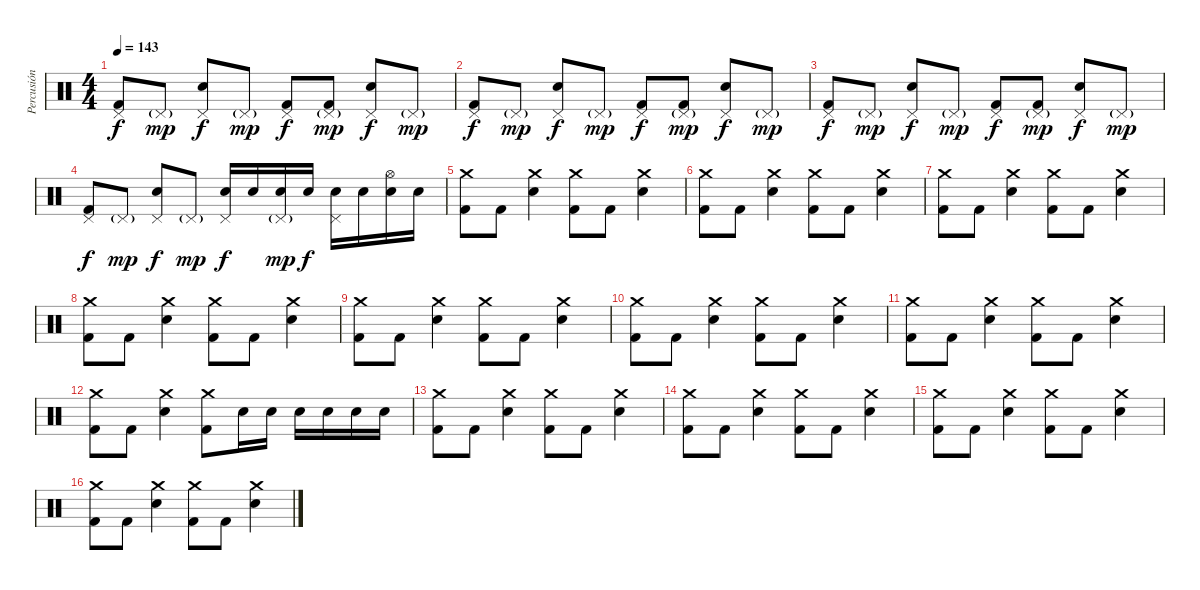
\track ("Percusión" "Percusión") {instrument percussion}
\staff {score}
\articulation defaults
\ts (4 4)
\tempo 143
\clef neutral
\ks c
("Pedal Hi-Hat (hit)" "Kick (hit) 2").8{dy f} "Pedal Hi-Hat (hit)"{g}.8{dy mp} ("Pedal Hi-Hat (hit)" "Snare (hit) 2").8{dy f} "Pedal Hi-Hat (hit)"{g}.8{dy mp} ("Pedal Hi-Hat (hit)" "Kick (hit) 2").8{dy f} ("Pedal Hi-Hat (hit)"{g} "Kick (hit) 2").8{dy mp} ("Pedal Hi-Hat (hit)" "Snare (hit) 2").8{dy f} "Pedal Hi-Hat (hit)"{g}.8{dy mp} |
("Pedal Hi-Hat (hit)" "Kick (hit) 2").8{dy f} "Pedal Hi-Hat (hit)"{g}.8{dy mp} ("Pedal Hi-Hat (hit)" "Snare (hit) 2").8{dy f} "Pedal Hi-Hat (hit)"{g}.8{dy mp} ("Pedal Hi-Hat (hit)" "Kick (hit) 2").8{dy f} ("Pedal Hi-Hat (hit)"{g} "Kick (hit) 2").8{dy mp} ("Pedal Hi-Hat (hit)" "Snare (hit) 2").8{dy f} "Pedal Hi-Hat (hit)"{g}.8{dy mp} |
("Pedal Hi-Hat (hit)" "Kick (hit) 2").8{dy f} "Pedal Hi-Hat (hit)"{g}.8{dy mp} ("Pedal Hi-Hat (hit)" "Snare (hit) 2").8{dy f} "Pedal Hi-Hat (hit)"{g}.8{dy mp} ("Pedal Hi-Hat (hit)" "Kick (hit) 2").8{dy f} ("Pedal Hi-Hat (hit)"{g} "Kick (hit) 2").8{dy mp} ("Pedal Hi-Hat (hit)" "Snare (hit) 2").8{dy f} "Pedal Hi-Hat (hit)"{g}.8{dy mp} |
("Pedal Hi-Hat (hit)" "Kick (hit) 2").8{dy f} "Pedal Hi-Hat (hit)"{g}.8{dy mp} ("Pedal Hi-Hat (hit)" "Snare (hit) 2").8{dy f} "Pedal Hi-Hat (hit)"{g}.8{dy mp} ("Pedal Hi-Hat (hit)" "Snare (hit) 2").16{dy f} "Snare (hit) 2".16 ("Pedal Hi-Hat (hit)"{g} "Snare (hit) 2").16{dy mp} "Snare (hit) 2".16{dy f} ("Pedal Hi-Hat (hit)" "Snare (hit) 2").16 "Snare (hit) 2".16 ("Hi-Hat (open)" "Snare (hit) 2").16 "Snare (hit) 2".16 |
("Crash medium (hit)" "Kick (hit) 2").8 "Kick (hit) 2".8 ("Crash medium (hit)" "Snare (hit) 2").4 ("Crash medium (hit)" "Kick (hit) 2").8 "Kick (hit) 2".8 ("Crash medium (hit)" "Snare (hit) 2").4 |
("Crash medium (hit)" "Kick (hit) 2").8 "Kick (hit) 2".8 ("Crash medium (hit)" "Snare (hit) 2").4 ("Crash medium (hit)" "Kick (hit) 2").8 "Kick (hit) 2".8 ("Crash medium (hit)" "Snare (hit) 2").4 |
("Crash medium (hit)" "Kick (hit) 2").8 "Kick (hit) 2".8 ("Crash medium (hit)" "Snare (hit) 2").4 ("Crash medium (hit)" "Kick (hit) 2").8 "Kick (hit) 2".8 ("Crash medium (hit)" "Snare (hit) 2").4 |
("Crash medium (hit)" "Kick (hit) 2").8 "Kick (hit) 2".8 ("Crash medium (hit)" "Snare (hit) 2").4 ("Crash medium (hit)" "Kick (hit) 2").8 "Kick (hit) 2".8 ("Crash medium (hit)" "Snare (hit) 2").4 |
("Crash medium (hit)" "Kick (hit) 2").8 "Kick (hit) 2".8 ("Crash medium (hit)" "Snare (hit) 2").4 ("Crash medium (hit)" "Kick (hit) 2").8 "Kick (hit) 2".8 ("Crash medium (hit)" "Snare (hit) 2").4 |
("Crash medium (hit)" "Kick (hit) 2").8 "Kick (hit) 2".8 ("Crash medium (hit)" "Snare (hit) 2").4 ("Crash medium (hit)" "Kick (hit) 2").8 "Kick (hit) 2".8 ("Crash medium (hit)" "Snare (hit) 2").4 |
("Crash medium (hit)" "Kick (hit) 2").8 "Kick (hit) 2".8 ("Crash medium (hit)" "Snare (hit) 2").4 ("Crash medium (hit)" "Kick (hit) 2").8 "Kick (hit) 2".8 ("Crash medium (hit)" "Snare (hit) 2").4 |
("Crash medium (hit)" "Kick (hit) 2").8 "Kick (hit) 2".8 ("Crash medium (hit)" "Snare (hit) 2").4 ("Crash medium (hit)" "Kick (hit) 2").8 "Snare (hit) 2".16 "Snare (hit) 2".16 "Snare (hit) 2".16 "Snare (hit) 2".16 "Snare (hit) 2".16 "Snare (hit) 2".16 |
("Crash medium (hit)" "Kick (hit) 2").8 "Kick (hit) 2".8 ("Crash medium (hit)" "Snare (hit) 2").4 ("Crash medium (hit)" "Kick (hit) 2").8 "Kick (hit) 2".8 ("Crash medium (hit)" "Snare (hit) 2").4 |
("Crash medium (hit)" "Kick (hit) 2").8 "Kick (hit) 2".8 ("Crash medium (hit)" "Snare (hit) 2").4 ("Crash medium (hit)" "Kick (hit) 2").8 "Kick (hit) 2".8 ("Crash medium (hit)" "Snare (hit) 2").4 |
("Crash medium (hit)" "Kick (hit) 2").8 "Kick (hit) 2".8 ("Crash medium (hit)" "Snare (hit) 2").4 ("Crash medium (hit)" "Kick (hit) 2").8 "Kick (hit) 2".8 ("Crash medium (hit)" "Snare (hit) 2").4 |
("Crash medium (hit)" "Kick (hit) 2").8 "Kick (hit) 2".8 ("Crash medium (hit)" "Snare (hit) 2").4 ("Crash medium (hit)" "Kick (hit) 2").8 "Kick (hit) 2".8 ("Crash medium (hit)" "Snare (hit) 2").4
